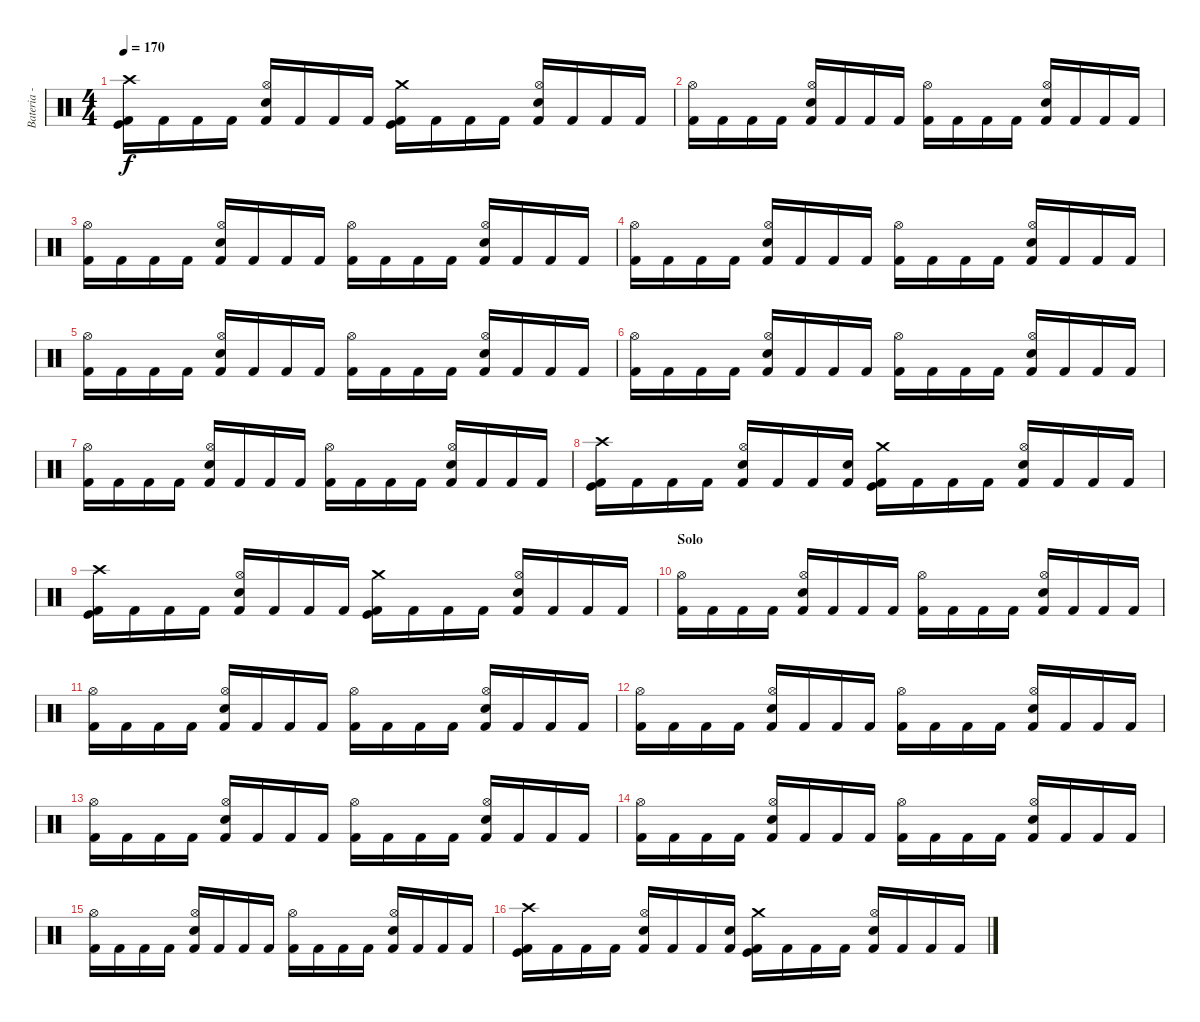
\track ("Bateria - Drums" "Bateria - ") {instrument percussion}
\staff {score}
\articulation defaults
\ts (4 4)
\tempo 170
\clef neutral
\ks c
("Crash high (hit)" "Kick (hit)" "Kick (hit) 2").16{dy f} "Kick (hit) 2".16 "Kick (hit) 2".16 "Kick (hit) 2".16 ("Hi-Hat (open)" "Electric Snare (hit)" "Kick (hit) 2").16 "Kick (hit) 2".16 "Kick (hit) 2".16 "Kick (hit) 2".16 ("Crash medium (hit)" "Kick (hit)" "Kick (hit) 2").16 "Kick (hit) 2".16 "Kick (hit) 2".16 "Kick (hit) 2".16 ("Hi-Hat (open)" "Electric Snare (hit)" "Kick (hit) 2").16 "Kick (hit) 2".16 "Kick (hit) 2".16 "Kick (hit) 2".16 |
("Hi-Hat (open)" "Kick (hit) 2").16 "Kick (hit) 2".16 "Kick (hit) 2".16 "Kick (hit) 2".16 ("Hi-Hat (open)" "Electric Snare (hit)" "Kick (hit) 2").16 "Kick (hit) 2".16 "Kick (hit) 2".16 "Kick (hit) 2".16 ("Hi-Hat (open)" "Kick (hit) 2").16 "Kick (hit) 2".16 "Kick (hit) 2".16 "Kick (hit) 2".16 ("Hi-Hat (open)" "Electric Snare (hit)" "Kick (hit) 2").16 "Kick (hit) 2".16 "Kick (hit) 2".16 "Kick (hit) 2".16 |
("Hi-Hat (open)" "Kick (hit) 2").16 "Kick (hit) 2".16 "Kick (hit) 2".16 "Kick (hit) 2".16 ("Hi-Hat (open)" "Electric Snare (hit)" "Kick (hit) 2").16 "Kick (hit) 2".16 "Kick (hit) 2".16 "Kick (hit) 2".16 ("Hi-Hat (open)" "Kick (hit) 2").16 "Kick (hit) 2".16 "Kick (hit) 2".16 "Kick (hit) 2".16 ("Hi-Hat (open)" "Electric Snare (hit)" "Kick (hit) 2").16 "Kick (hit) 2".16 "Kick (hit) 2".16 "Kick (hit) 2".16 |
("Hi-Hat (open)" "Kick (hit) 2").16 "Kick (hit) 2".16 "Kick (hit) 2".16 "Kick (hit) 2".16 ("Hi-Hat (open)" "Electric Snare (hit)" "Kick (hit) 2").16 "Kick (hit) 2".16 "Kick (hit) 2".16 "Kick (hit) 2".16 ("Hi-Hat (open)" "Kick (hit) 2").16 "Kick (hit) 2".16 "Kick (hit) 2".16 "Kick (hit) 2".16 ("Hi-Hat (open)" "Electric Snare (hit)" "Kick (hit) 2").16 "Kick (hit) 2".16 "Kick (hit) 2".16 "Kick (hit) 2".16 |
("Hi-Hat (open)" "Kick (hit) 2").16 "Kick (hit) 2".16 "Kick (hit) 2".16 "Kick (hit) 2".16 ("Hi-Hat (open)" "Electric Snare (hit)" "Kick (hit) 2").16 "Kick (hit) 2".16 "Kick (hit) 2".16 "Kick (hit) 2".16 ("Hi-Hat (open)" "Kick (hit) 2").16 "Kick (hit) 2".16 "Kick (hit) 2".16 "Kick (hit) 2".16 ("Hi-Hat (open)" "Electric Snare (hit)" "Kick (hit) 2").16 "Kick (hit) 2".16 "Kick (hit) 2".16 "Kick (hit) 2".16 |
("Hi-Hat (open)" "Kick (hit) 2").16 "Kick (hit) 2".16 "Kick (hit) 2".16 "Kick (hit) 2".16 ("Hi-Hat (open)" "Electric Snare (hit)" "Kick (hit) 2").16 "Kick (hit) 2".16 "Kick (hit) 2".16 "Kick (hit) 2".16 ("Hi-Hat (open)" "Kick (hit) 2").16 "Kick (hit) 2".16 "Kick (hit) 2".16 "Kick (hit) 2".16 ("Hi-Hat (open)" "Electric Snare (hit)" "Kick (hit) 2").16 "Kick (hit) 2".16 "Kick (hit) 2".16 "Kick (hit) 2".16 |
("Hi-Hat (open)" "Kick (hit) 2").16 "Kick (hit) 2".16 "Kick (hit) 2".16 "Kick (hit) 2".16 ("Hi-Hat (open)" "Electric Snare (hit)" "Kick (hit) 2").16 "Kick (hit) 2".16 "Kick (hit) 2".16 "Kick (hit) 2".16 ("Hi-Hat (open)" "Kick (hit) 2").16 "Kick (hit) 2".16 "Kick (hit) 2".16 "Kick (hit) 2".16 ("Hi-Hat (open)" "Electric Snare (hit)" "Kick (hit) 2").16 "Kick (hit) 2".16 "Kick (hit) 2".16 "Kick (hit) 2".16 |
("Crash high (hit)" "Kick (hit)" "Kick (hit) 2").16 "Kick (hit) 2".16 "Kick (hit) 2".16 "Kick (hit) 2".16 ("Hi-Hat (open)" "Electric Snare (hit)" "Kick (hit) 2").16 "Kick (hit) 2".16 "Kick (hit) 2".16 ("Electric Snare (hit)" "Kick (hit) 2").16 ("Crash medium (hit)" "Kick (hit)" "Kick (hit) 2").16 "Kick (hit) 2".16 "Kick (hit) 2".16 "Kick (hit) 2".16 ("Hi-Hat (open)" "Electric Snare (hit)" "Kick (hit) 2").16 "Kick (hit) 2".16 "Kick (hit) 2".16 "Kick (hit) 2".16 |
("Crash high (hit)" "Kick (hit)" "Kick (hit) 2").16 "Kick (hit) 2".16 "Kick (hit) 2".16 "Kick (hit) 2".16 ("Hi-Hat (open)" "Electric Snare (hit)" "Kick (hit) 2").16 "Kick (hit) 2".16 "Kick (hit) 2".16 "Kick (hit) 2".16 ("Crash medium (hit)" "Kick (hit)" "Kick (hit) 2").16 "Kick (hit) 2".16 "Kick (hit) 2".16 "Kick (hit) 2".16 ("Hi-Hat (open)" "Electric Snare (hit)" "Kick (hit) 2").16 "Kick (hit) 2".16 "Kick (hit) 2".16 "Kick (hit) 2".16 |
\section ("" "Solo")
("Hi-Hat (open)" "Kick (hit) 2").16 "Kick (hit) 2".16 "Kick (hit) 2".16 "Kick (hit) 2".16 ("Hi-Hat (open)" "Electric Snare (hit)" "Kick (hit) 2").16 "Kick (hit) 2".16 "Kick (hit) 2".16 "Kick (hit) 2".16 ("Hi-Hat (open)" "Kick (hit) 2").16 "Kick (hit) 2".16 "Kick (hit) 2".16 "Kick (hit) 2".16 ("Hi-Hat (open)" "Electric Snare (hit)" "Kick (hit) 2").16 "Kick (hit) 2".16 "Kick (hit) 2".16 "Kick (hit) 2".16 |
("Hi-Hat (open)" "Kick (hit) 2").16 "Kick (hit) 2".16 "Kick (hit) 2".16 "Kick (hit) 2".16 ("Hi-Hat (open)" "Electric Snare (hit)" "Kick (hit) 2").16 "Kick (hit) 2".16 "Kick (hit) 2".16 "Kick (hit) 2".16 ("Hi-Hat (open)" "Kick (hit) 2").16 "Kick (hit) 2".16 "Kick (hit) 2".16 "Kick (hit) 2".16 ("Hi-Hat (open)" "Electric Snare (hit)" "Kick (hit) 2").16 "Kick (hit) 2".16 "Kick (hit) 2".16 "Kick (hit) 2".16 |
("Hi-Hat (open)" "Kick (hit) 2").16 "Kick (hit) 2".16 "Kick (hit) 2".16 "Kick (hit) 2".16 ("Hi-Hat (open)" "Electric Snare (hit)" "Kick (hit) 2").16 "Kick (hit) 2".16 "Kick (hit) 2".16 "Kick (hit) 2".16 ("Hi-Hat (open)" "Kick (hit) 2").16 "Kick (hit) 2".16 "Kick (hit) 2".16 "Kick (hit) 2".16 ("Hi-Hat (open)" "Electric Snare (hit)" "Kick (hit) 2").16 "Kick (hit) 2".16 "Kick (hit) 2".16 "Kick (hit) 2".16 |
("Hi-Hat (open)" "Kick (hit) 2").16 "Kick (hit) 2".16 "Kick (hit) 2".16 "Kick (hit) 2".16 ("Hi-Hat (open)" "Electric Snare (hit)" "Kick (hit) 2").16 "Kick (hit) 2".16 "Kick (hit) 2".16 "Kick (hit) 2".16 ("Hi-Hat (open)" "Kick (hit) 2").16 "Kick (hit) 2".16 "Kick (hit) 2".16 "Kick (hit) 2".16 ("Hi-Hat (open)" "Electric Snare (hit)" "Kick (hit) 2").16 "Kick (hit) 2".16 "Kick (hit) 2".16 "Kick (hit) 2".16 |
("Hi-Hat (open)" "Kick (hit) 2").16 "Kick (hit) 2".16 "Kick (hit) 2".16 "Kick (hit) 2".16 ("Hi-Hat (open)" "Electric Snare (hit)" "Kick (hit) 2").16 "Kick (hit) 2".16 "Kick (hit) 2".16 "Kick (hit) 2".16 ("Hi-Hat (open)" "Kick (hit) 2").16 "Kick (hit) 2".16 "Kick (hit) 2".16 "Kick (hit) 2".16 ("Hi-Hat (open)" "Electric Snare (hit)" "Kick (hit) 2").16 "Kick (hit) 2".16 "Kick (hit) 2".16 "Kick (hit) 2".16 |
("Hi-Hat (open)" "Kick (hit) 2").16 "Kick (hit) 2".16 "Kick (hit) 2".16 "Kick (hit) 2".16 ("Hi-Hat (open)" "Electric Snare (hit)" "Kick (hit) 2").16 "Kick (hit) 2".16 "Kick (hit) 2".16 "Kick (hit) 2".16 ("Hi-Hat (open)" "Kick (hit) 2").16 "Kick (hit) 2".16 "Kick (hit) 2".16 "Kick (hit) 2".16 ("Hi-Hat (open)" "Electric Snare (hit)" "Kick (hit) 2").16 "Kick (hit) 2".16 "Kick (hit) 2".16 "Kick (hit) 2".16 |
("Crash high (hit)" "Kick (hit)" "Kick (hit) 2").16 "Kick (hit) 2".16 "Kick (hit) 2".16 "Kick (hit) 2".16 ("Hi-Hat (open)" "Electric Snare (hit)" "Kick (hit) 2").16 "Kick (hit) 2".16 "Kick (hit) 2".16 ("Electric Snare (hit)" "Kick (hit) 2").16 ("Crash medium (hit)" "Kick (hit)" "Kick (hit) 2").16 "Kick (hit) 2".16 "Kick (hit) 2".16 "Kick (hit) 2".16 ("Hi-Hat (open)" "Electric Snare (hit)" "Kick (hit) 2").16 "Kick (hit) 2".16 "Kick (hit) 2".16 "Kick (hit) 2".16
